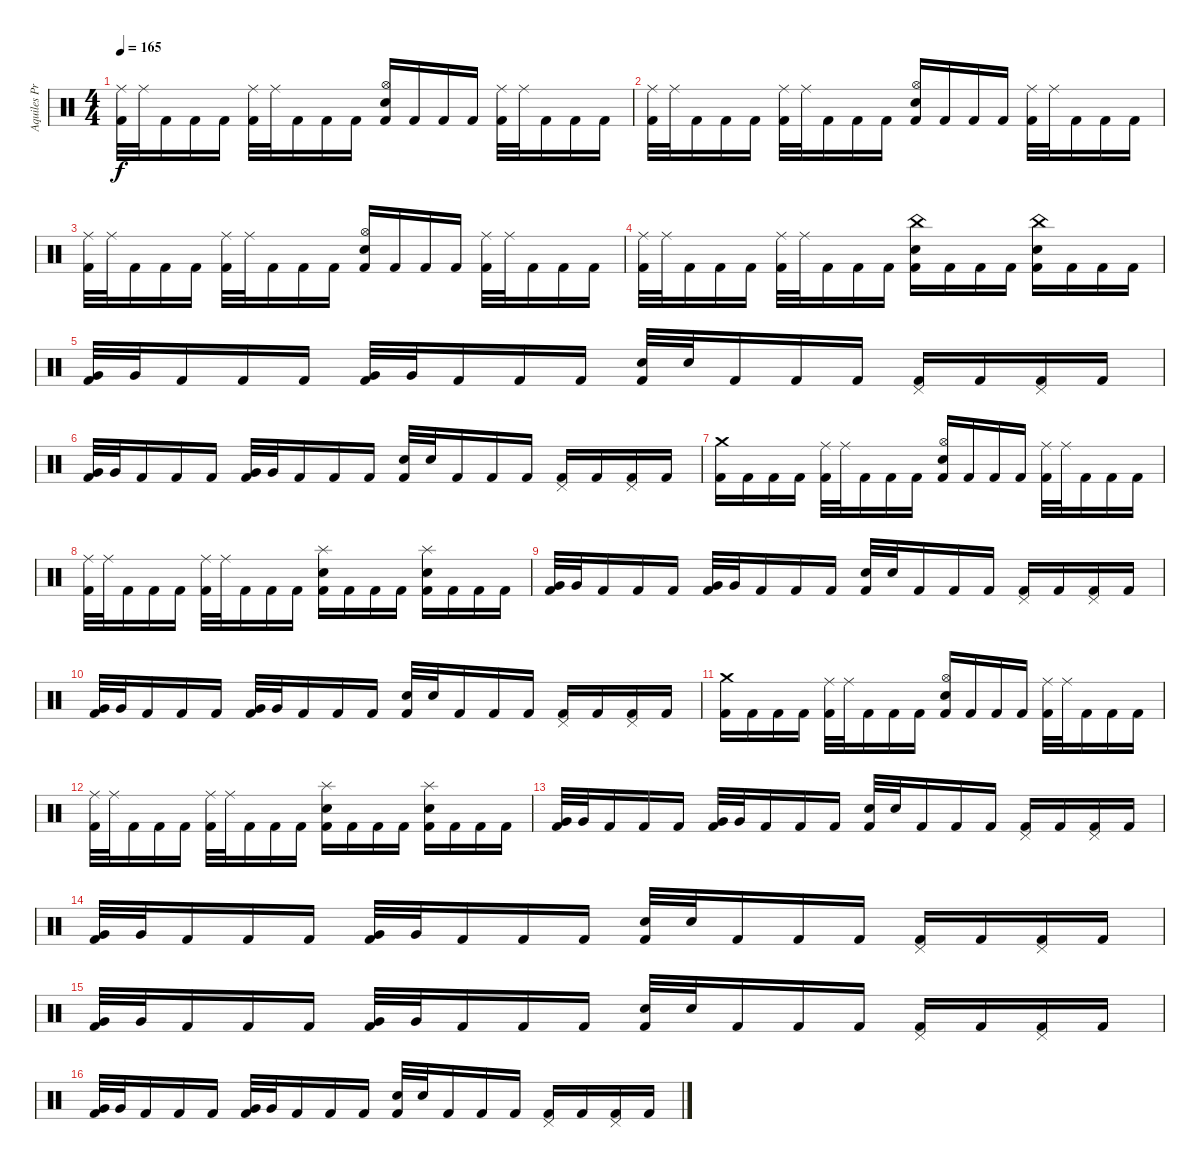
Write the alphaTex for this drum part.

\track ("Aquiles Priester" "Aquiles Pr") {instrument percussion}
\staff {score}
\articulation defaults
\ts (4 4)
\tempo 165
\clef neutral
\ks c
("Ride (middle)" "Kick (hit) 2").32{dy f} "Ride (middle)".32 "Kick (hit) 2".16 "Kick (hit) 2".16 "Kick (hit) 2".16 ("Ride (middle)" "Kick (hit) 2").32 "Ride (middle)".32 "Kick (hit) 2".16 "Kick (hit) 2".16 "Kick (hit) 2".16 ("Hi-Hat (open)" "Electric Snare (hit)" "Kick (hit) 2").16 "Kick (hit) 2".16 "Kick (hit) 2".16 "Kick (hit) 2".16 ("Ride (middle)" "Kick (hit) 2").32 "Ride (middle)".32 "Kick (hit) 2".16 "Kick (hit) 2".16 "Kick (hit) 2".16 |
("Ride (middle)" "Kick (hit) 2").32 "Ride (middle)".32 "Kick (hit) 2".16 "Kick (hit) 2".16 "Kick (hit) 2".16 ("Ride (middle)" "Kick (hit) 2").32 "Ride (middle)".32 "Kick (hit) 2".16 "Kick (hit) 2".16 "Kick (hit) 2".16 ("Hi-Hat (open)" "Electric Snare (hit)" "Kick (hit) 2").16 "Kick (hit) 2".16 "Kick (hit) 2".16 "Kick (hit) 2".16 ("Ride (middle)" "Kick (hit) 2").32 "Ride (middle)".32 "Kick (hit) 2".16 "Kick (hit) 2".16 "Kick (hit) 2".16 |
("Ride (middle)" "Kick (hit) 2").32 "Ride (middle)".32 "Kick (hit) 2".16 "Kick (hit) 2".16 "Kick (hit) 2".16 ("Ride (middle)" "Kick (hit) 2").32 "Ride (middle)".32 "Kick (hit) 2".16 "Kick (hit) 2".16 "Kick (hit) 2".16 ("Hi-Hat (open)" "Electric Snare (hit)" "Kick (hit) 2").16 "Kick (hit) 2".16 "Kick (hit) 2".16 "Kick (hit) 2".16 ("Ride (middle)" "Kick (hit) 2").32 "Ride (middle)".32 "Kick (hit) 2".16 "Kick (hit) 2".16 "Kick (hit) 2".16 |
("Ride (middle)" "Kick (hit) 2").32 "Ride (middle)".32 "Kick (hit) 2".16 "Kick (hit) 2".16 "Kick (hit) 2".16 ("Ride (middle)" "Kick (hit) 2").32 "Ride (middle)".32 "Kick (hit) 2".16 "Kick (hit) 2".16 "Kick (hit) 2".16 ("China (hit)" "Electric Snare (hit)" "Kick (hit) 2").16 "Kick (hit) 2".16 "Kick (hit) 2".16 "Kick (hit) 2".16 ("China (hit)" "Electric Snare (hit)" "Kick (hit) 2").16 "Kick (hit) 2".16 "Kick (hit) 2".16 "Kick (hit) 2".16 |
("Very Low Tom (hit)" "Kick (hit) 2").32 "Very Low Tom (hit)".32 "Kick (hit) 2".16 "Kick (hit) 2".16 "Kick (hit) 2".16 ("Very Low Tom (hit)" "Kick (hit) 2").32 "Very Low Tom (hit)".32 "Kick (hit) 2".16 "Kick (hit) 2".16 "Kick (hit) 2".16 ("Electric Snare (hit)" "Kick (hit) 2").32 "Electric Snare (hit)".32 "Kick (hit) 2".16 "Kick (hit) 2".16 "Kick (hit) 2".16 ("Pedal Hi-Hat (hit)" "Kick (hit) 2").16 "Kick (hit) 2".16 ("Pedal Hi-Hat (hit)" "Kick (hit) 2").16 "Kick (hit) 2".16 |
("Very Low Tom (hit)" "Kick (hit) 2").32 "Very Low Tom (hit)".32 "Kick (hit) 2".16 "Kick (hit) 2".16 "Kick (hit) 2".16 ("Very Low Tom (hit)" "Kick (hit) 2").32 "Very Low Tom (hit)".32 "Kick (hit) 2".16 "Kick (hit) 2".16 "Kick (hit) 2".16 ("Electric Snare (hit)" "Kick (hit) 2").32 "Electric Snare (hit)".32 "Kick (hit) 2".16 "Kick (hit) 2".16 "Kick (hit) 2".16 ("Pedal Hi-Hat (hit)" "Kick (hit) 2").16 "Kick (hit) 2".16 ("Pedal Hi-Hat (hit)" "Kick (hit) 2").16 "Kick (hit) 2".16 |
("Crash medium (hit)" "Kick (hit) 2").16 "Kick (hit) 2".16 "Kick (hit) 2".16 "Kick (hit) 2".16 ("Ride (middle)" "Kick (hit) 2").32 "Ride (middle)".32 "Kick (hit) 2".16 "Kick (hit) 2".16 "Kick (hit) 2".16 ("Hi-Hat (open)" "Electric Snare (hit)" "Kick (hit) 2").16 "Kick (hit) 2".16 "Kick (hit) 2".16 "Kick (hit) 2".16 ("Ride (middle)" "Kick (hit) 2").32 "Ride (middle)".32 "Kick (hit) 2".16 "Kick (hit) 2".16 "Kick (hit) 2".16 |
("Ride (middle)" "Kick (hit) 2").32 "Ride (middle)".32 "Kick (hit) 2".16 "Kick (hit) 2".16 "Kick (hit) 2".16 ("Ride (middle)" "Kick (hit) 2").32 "Ride (middle)".32 "Kick (hit) 2".16 "Kick (hit) 2".16 "Kick (hit) 2".16 ("Splash (hit)" "Electric Snare (hit)" "Kick (hit) 2").16 "Kick (hit) 2".16 "Kick (hit) 2".16 "Kick (hit) 2".16 ("Splash (hit)" "Electric Snare (hit)" "Kick (hit) 2").16 "Kick (hit) 2".16 "Kick (hit) 2".16 "Kick (hit) 2".16 |
("Very Low Tom (hit)" "Kick (hit) 2").32 "Very Low Tom (hit)".32 "Kick (hit) 2".16 "Kick (hit) 2".16 "Kick (hit) 2".16 ("Very Low Tom (hit)" "Kick (hit) 2").32 "Very Low Tom (hit)".32 "Kick (hit) 2".16 "Kick (hit) 2".16 "Kick (hit) 2".16 ("Electric Snare (hit)" "Kick (hit) 2").32 "Electric Snare (hit)".32 "Kick (hit) 2".16 "Kick (hit) 2".16 "Kick (hit) 2".16 ("Pedal Hi-Hat (hit)" "Kick (hit) 2").16 "Kick (hit) 2".16 ("Pedal Hi-Hat (hit)" "Kick (hit) 2").16 "Kick (hit) 2".16 |
("Very Low Tom (hit)" "Kick (hit) 2").32 "Very Low Tom (hit)".32 "Kick (hit) 2".16 "Kick (hit) 2".16 "Kick (hit) 2".16 ("Very Low Tom (hit)" "Kick (hit) 2").32 "Very Low Tom (hit)".32 "Kick (hit) 2".16 "Kick (hit) 2".16 "Kick (hit) 2".16 ("Electric Snare (hit)" "Kick (hit) 2").32 "Electric Snare (hit)".32 "Kick (hit) 2".16 "Kick (hit) 2".16 "Kick (hit) 2".16 ("Pedal Hi-Hat (hit)" "Kick (hit) 2").16 "Kick (hit) 2".16 ("Pedal Hi-Hat (hit)" "Kick (hit) 2").16 "Kick (hit) 2".16 |
("Crash medium (hit)" "Kick (hit) 2").16 "Kick (hit) 2".16 "Kick (hit) 2".16 "Kick (hit) 2".16 ("Ride (middle)" "Kick (hit) 2").32 "Ride (middle)".32 "Kick (hit) 2".16 "Kick (hit) 2".16 "Kick (hit) 2".16 ("Hi-Hat (open)" "Electric Snare (hit)" "Kick (hit) 2").16 "Kick (hit) 2".16 "Kick (hit) 2".16 "Kick (hit) 2".16 ("Ride (middle)" "Kick (hit) 2").32 "Ride (middle)".32 "Kick (hit) 2".16 "Kick (hit) 2".16 "Kick (hit) 2".16 |
("Ride (middle)" "Kick (hit) 2").32 "Ride (middle)".32 "Kick (hit) 2".16 "Kick (hit) 2".16 "Kick (hit) 2".16 ("Ride (middle)" "Kick (hit) 2").32 "Ride (middle)".32 "Kick (hit) 2".16 "Kick (hit) 2".16 "Kick (hit) 2".16 ("Splash (hit)" "Electric Snare (hit)" "Kick (hit) 2").16 "Kick (hit) 2".16 "Kick (hit) 2".16 "Kick (hit) 2".16 ("Splash (hit)" "Electric Snare (hit)" "Kick (hit) 2").16 "Kick (hit) 2".16 "Kick (hit) 2".16 "Kick (hit) 2".16 |
("Very Low Tom (hit)" "Kick (hit) 2").32 "Very Low Tom (hit)".32 "Kick (hit) 2".16 "Kick (hit) 2".16 "Kick (hit) 2".16 ("Very Low Tom (hit)" "Kick (hit) 2").32 "Very Low Tom (hit)".32 "Kick (hit) 2".16 "Kick (hit) 2".16 "Kick (hit) 2".16 ("Electric Snare (hit)" "Kick (hit) 2").32 "Electric Snare (hit)".32 "Kick (hit) 2".16 "Kick (hit) 2".16 "Kick (hit) 2".16 ("Pedal Hi-Hat (hit)" "Kick (hit) 2").16 "Kick (hit) 2".16 ("Pedal Hi-Hat (hit)" "Kick (hit) 2").16 "Kick (hit) 2".16 |
("Very Low Tom (hit)" "Kick (hit) 2").32 "Very Low Tom (hit)".32 "Kick (hit) 2".16 "Kick (hit) 2".16 "Kick (hit) 2".16 ("Very Low Tom (hit)" "Kick (hit) 2").32 "Very Low Tom (hit)".32 "Kick (hit) 2".16 "Kick (hit) 2".16 "Kick (hit) 2".16 ("Electric Snare (hit)" "Kick (hit) 2").32 "Electric Snare (hit)".32 "Kick (hit) 2".16 "Kick (hit) 2".16 "Kick (hit) 2".16 ("Pedal Hi-Hat (hit)" "Kick (hit) 2").16 "Kick (hit) 2".16 ("Pedal Hi-Hat (hit)" "Kick (hit) 2").16 "Kick (hit) 2".16 |
("Very Low Tom (hit)" "Kick (hit) 2").32 "Very Low Tom (hit)".32 "Kick (hit) 2".16 "Kick (hit) 2".16 "Kick (hit) 2".16 ("Very Low Tom (hit)" "Kick (hit) 2").32 "Very Low Tom (hit)".32 "Kick (hit) 2".16 "Kick (hit) 2".16 "Kick (hit) 2".16 ("Electric Snare (hit)" "Kick (hit) 2").32 "Electric Snare (hit)".32 "Kick (hit) 2".16 "Kick (hit) 2".16 "Kick (hit) 2".16 ("Pedal Hi-Hat (hit)" "Kick (hit) 2").16 "Kick (hit) 2".16 ("Pedal Hi-Hat (hit)" "Kick (hit) 2").16 "Kick (hit) 2".16 |
("Very Low Tom (hit)" "Kick (hit) 2").32 "Very Low Tom (hit)".32 "Kick (hit) 2".16 "Kick (hit) 2".16 "Kick (hit) 2".16 ("Very Low Tom (hit)" "Kick (hit) 2").32 "Very Low Tom (hit)".32 "Kick (hit) 2".16 "Kick (hit) 2".16 "Kick (hit) 2".16 ("Electric Snare (hit)" "Kick (hit) 2").32 "Electric Snare (hit)".32 "Kick (hit) 2".16 "Kick (hit) 2".16 "Kick (hit) 2".16 ("Pedal Hi-Hat (hit)" "Kick (hit) 2").16 "Kick (hit) 2".16 ("Pedal Hi-Hat (hit)" "Kick (hit) 2").16 "Kick (hit) 2".16
